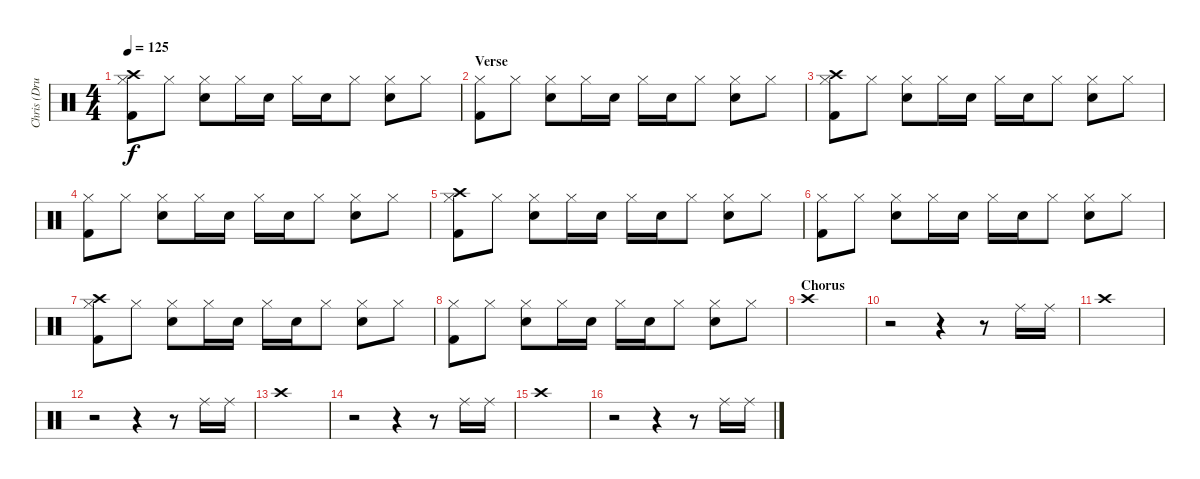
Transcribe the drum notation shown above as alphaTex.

\track ("Chris (Drums)" "Chris (Dru") {instrument percussion}
\staff {score}
\articulation defaults
\ts (4 4)
\tempo 125
\clef neutral
\ks c
("Crash high (hit)" "Hi-Hat (closed)" "Kick (hit) 2").8{dy f} "Hi-Hat (closed)".8 ("Hi-Hat (closed)" "Snare (hit) 2").8 "Hi-Hat (closed)".16 "Snare (hit) 2".16 "Hi-Hat (closed)".16 "Snare (hit) 2".16 "Hi-Hat (closed)".8 ("Hi-Hat (closed)" "Snare (hit) 2").8 "Hi-Hat (closed)".8 |
\section ("" "Verse")
("Hi-Hat (closed)" "Kick (hit) 2").8 "Hi-Hat (closed)".8 ("Hi-Hat (closed)" "Snare (hit) 2").8 "Hi-Hat (closed)".16 "Snare (hit) 2".16 "Hi-Hat (closed)".16 "Snare (hit) 2".16 "Hi-Hat (closed)".8 ("Hi-Hat (closed)" "Snare (hit) 2").8 "Hi-Hat (closed)".8 |
("Crash high (hit)" "Hi-Hat (closed)" "Kick (hit) 2").8 "Hi-Hat (closed)".8 ("Hi-Hat (closed)" "Snare (hit) 2").8 "Hi-Hat (closed)".16 "Snare (hit) 2".16 "Hi-Hat (closed)".16 "Snare (hit) 2".16 "Hi-Hat (closed)".8 ("Hi-Hat (closed)" "Snare (hit) 2").8 "Hi-Hat (closed)".8 |
("Hi-Hat (closed)" "Kick (hit) 2").8 "Hi-Hat (closed)".8 ("Hi-Hat (closed)" "Snare (hit) 2").8 "Hi-Hat (closed)".16 "Snare (hit) 2".16 "Hi-Hat (closed)".16 "Snare (hit) 2".16 "Hi-Hat (closed)".8 ("Hi-Hat (closed)" "Snare (hit) 2").8 "Hi-Hat (closed)".8 |
("Crash high (hit)" "Hi-Hat (closed)" "Kick (hit) 2").8 "Hi-Hat (closed)".8 ("Hi-Hat (closed)" "Snare (hit) 2").8 "Hi-Hat (closed)".16 "Snare (hit) 2".16 "Hi-Hat (closed)".16 "Snare (hit) 2".16 "Hi-Hat (closed)".8 ("Hi-Hat (closed)" "Snare (hit) 2").8 "Hi-Hat (closed)".8 |
("Hi-Hat (closed)" "Kick (hit) 2").8 "Hi-Hat (closed)".8 ("Hi-Hat (closed)" "Snare (hit) 2").8 "Hi-Hat (closed)".16 "Snare (hit) 2".16 "Hi-Hat (closed)".16 "Snare (hit) 2".16 "Hi-Hat (closed)".8 ("Hi-Hat (closed)" "Snare (hit) 2").8 "Hi-Hat (closed)".8 |
("Crash high (hit)" "Hi-Hat (closed)" "Kick (hit) 2").8 "Hi-Hat (closed)".8 ("Hi-Hat (closed)" "Snare (hit) 2").8 "Hi-Hat (closed)".16 "Snare (hit) 2".16 "Hi-Hat (closed)".16 "Snare (hit) 2".16 "Hi-Hat (closed)".8 ("Hi-Hat (closed)" "Snare (hit) 2").8 "Hi-Hat (closed)".8 |
("Hi-Hat (closed)" "Kick (hit) 2").8 "Hi-Hat (closed)".8 ("Hi-Hat (closed)" "Snare (hit) 2").8 "Hi-Hat (closed)".16 "Snare (hit) 2".16 "Hi-Hat (closed)".16 "Snare (hit) 2".16 "Hi-Hat (closed)".8 ("Hi-Hat (closed)" "Snare (hit) 2").8 "Hi-Hat (closed)".8 |
\section ("" "Chorus")
"Crash high (hit)".1 |
r.2 r.4 r.8 "Ride (middle)".16 "Ride (middle)".16 |
"Crash high (hit)".1 |
r.2 r.4 r.8 "Ride (middle)".16 "Ride (middle)".16 |
"Crash high (hit)".1 |
r.2 r.4 r.8 "Ride (middle)".16 "Ride (middle)".16 |
"Crash high (hit)".1 |
r.2 r.4 r.8 "Ride (middle)".16 "Ride (middle)".16
